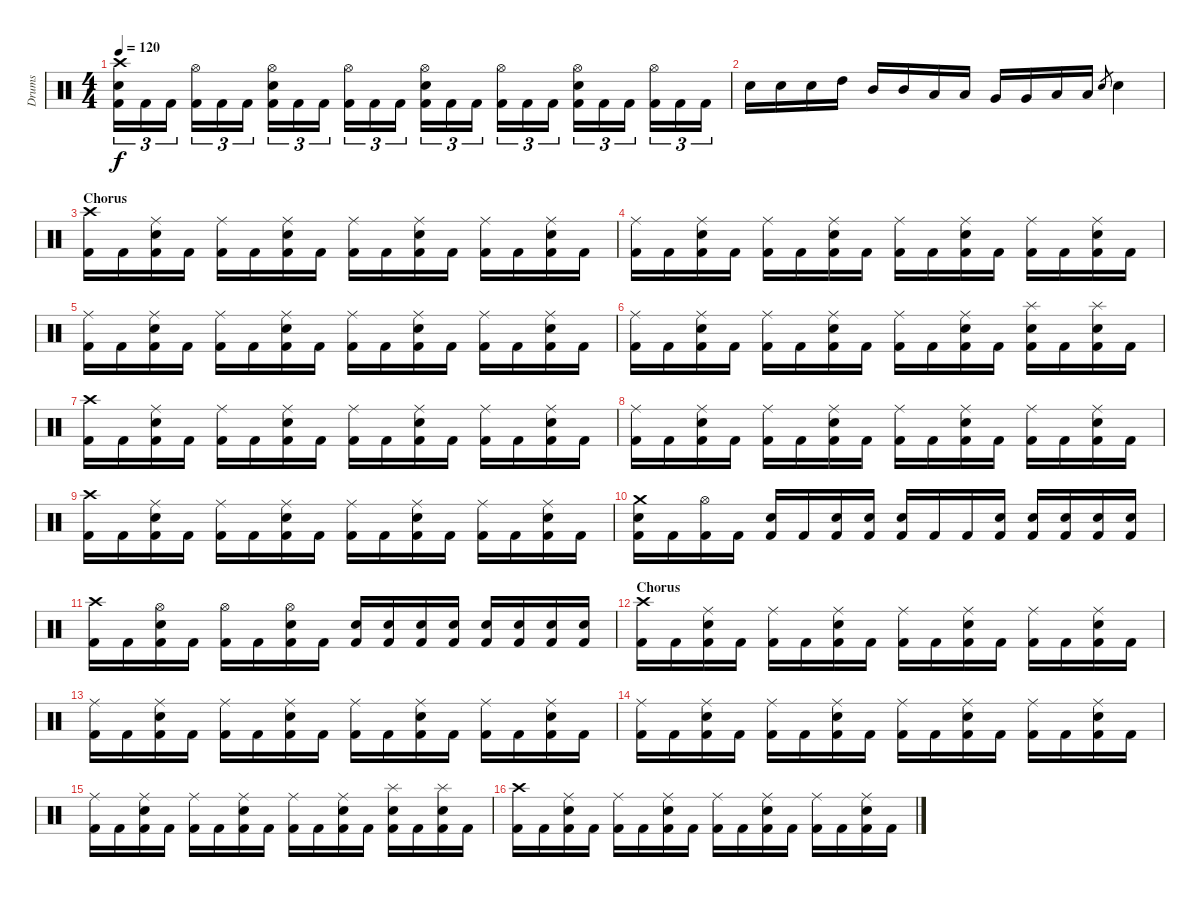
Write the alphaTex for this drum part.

\track ("Drums" "Drums") {instrument percussion}
\staff {score}
\articulation defaults
\ts (4 4)
\tempo 120
\clef neutral
\ks c
("Crash high (hit)" "Snare (hit) 2" "Kick (hit) 2").16{tu (3 2) dy f} "Kick (hit) 2".16{tu (3 2)} "Kick (hit) 2".16{tu (3 2)} ("Hi-Hat (open)" "Kick (hit) 2").16{tu (3 2)} "Kick (hit) 2".16{tu (3 2)} "Kick (hit) 2".16{tu (3 2)} ("Hi-Hat (open)" "Snare (hit) 2" "Kick (hit) 2").16{tu (3 2)} "Kick (hit) 2".16{tu (3 2)} "Kick (hit) 2".16{tu (3 2)} ("Hi-Hat (open)" "Kick (hit) 2").16{tu (3 2)} "Kick (hit) 2".16{tu (3 2)} "Kick (hit) 2".16{tu (3 2)} ("Hi-Hat (open)" "Snare (hit) 2" "Kick (hit) 2").16{tu (3 2)} "Kick (hit) 2".16{tu (3 2)} "Kick (hit) 2".16{tu (3 2)} ("Hi-Hat (open)" "Kick (hit) 2").16{tu (3 2)} "Kick (hit) 2".16{tu (3 2)} "Kick (hit) 2".16{tu (3 2)} ("Hi-Hat (open)" "Snare (hit) 2" "Kick (hit) 2").16{tu (3 2)} "Kick (hit) 2".16{tu (3 2)} "Kick (hit) 2".16{tu (3 2)} ("Hi-Hat (open)" "Kick (hit) 2").16{tu (3 2)} "Kick (hit) 2".16{tu (3 2)} "Kick (hit) 2".16{tu (3 2)} |
"Snare (hit) 2".16 "Snare (hit) 2".16 "Snare (hit) 2".16 "High Tom (hit)".16 "Mid Tom (hit)".16 "Mid Tom (hit)".16 "Low Tom (hit)".16 "Low Tom (hit)".16 "Very Low Tom (hit)".16 "Very Low Tom (hit)".16 "Low Floor Tom (hit)".16 "Low Floor Tom (hit)".16 "Snare (hit) 2".8{gr} "Snare (hit) 2".4 |
\section ("" "Chorus")
("Crash high (hit)" "Kick (hit) 2").16 "Kick (hit) 2".16 ("Ride (middle)" "Snare (hit) 2" "Kick (hit) 2").16 "Kick (hit) 2".16 ("Ride (middle)" "Kick (hit) 2").16 "Kick (hit) 2".16 ("Ride (middle)" "Snare (hit) 2" "Kick (hit) 2").16 "Kick (hit) 2".16 ("Ride (middle)" "Kick (hit) 2").16 "Kick (hit) 2".16 ("Ride (middle)" "Snare (hit) 2" "Kick (hit) 2").16 "Kick (hit) 2".16 ("Ride (middle)" "Kick (hit) 2").16 "Kick (hit) 2".16 ("Ride (middle)" "Snare (hit) 2" "Kick (hit) 2").16 "Kick (hit) 2".16 |
("Ride (middle)" "Kick (hit) 2").16 "Kick (hit) 2".16 ("Ride (middle)" "Snare (hit) 2" "Kick (hit) 2").16 "Kick (hit) 2".16 ("Ride (middle)" "Kick (hit) 2").16 "Kick (hit) 2".16 ("Ride (middle)" "Snare (hit) 2" "Kick (hit) 2").16 "Kick (hit) 2".16 ("Ride (middle)" "Kick (hit) 2").16 "Kick (hit) 2".16 ("Ride (middle)" "Snare (hit) 2" "Kick (hit) 2").16 "Kick (hit) 2".16 ("Ride (middle)" "Kick (hit) 2").16 "Kick (hit) 2".16 ("Ride (middle)" "Snare (hit) 2" "Kick (hit) 2").16 "Kick (hit) 2".16 |
("Ride (middle)" "Kick (hit) 2").16 "Kick (hit) 2".16 ("Ride (middle)" "Snare (hit) 2" "Kick (hit) 2").16 "Kick (hit) 2".16 ("Ride (middle)" "Kick (hit) 2").16 "Kick (hit) 2".16 ("Ride (middle)" "Snare (hit) 2" "Kick (hit) 2").16 "Kick (hit) 2".16 ("Ride (middle)" "Kick (hit) 2").16 "Kick (hit) 2".16 ("Ride (middle)" "Snare (hit) 2" "Kick (hit) 2").16 "Kick (hit) 2".16 ("Ride (middle)" "Kick (hit) 2").16 "Kick (hit) 2".16 ("Ride (middle)" "Snare (hit) 2" "Kick (hit) 2").16 "Kick (hit) 2".16 |
("Ride (middle)" "Kick (hit) 2").16 "Kick (hit) 2".16 ("Ride (middle)" "Snare (hit) 2" "Kick (hit) 2").16 "Kick (hit) 2".16 ("Ride (middle)" "Kick (hit) 2").16 "Kick (hit) 2".16 ("Ride (middle)" "Snare (hit) 2" "Kick (hit) 2").16 "Kick (hit) 2".16 ("Ride (middle)" "Kick (hit) 2").16 "Kick (hit) 2".16 ("Ride (middle)" "Snare (hit) 2" "Kick (hit) 2").16 "Kick (hit) 2".16 ("Splash (hit)" "Snare (hit) 2" "Kick (hit) 2").16 "Kick (hit) 2".16 ("Splash (hit)" "Snare (hit) 2" "Kick (hit) 2").16 "Kick (hit) 2".16 |
("Crash high (hit)" "Kick (hit) 2").16 "Kick (hit) 2".16 ("Ride (middle)" "Snare (hit) 2" "Kick (hit) 2").16 "Kick (hit) 2".16 ("Ride (middle)" "Kick (hit) 2").16 "Kick (hit) 2".16 ("Ride (middle)" "Snare (hit) 2" "Kick (hit) 2").16 "Kick (hit) 2".16 ("Ride (middle)" "Kick (hit) 2").16 "Kick (hit) 2".16 ("Ride (middle)" "Snare (hit) 2" "Kick (hit) 2").16 "Kick (hit) 2".16 ("Ride (middle)" "Kick (hit) 2").16 "Kick (hit) 2".16 ("Ride (middle)" "Snare (hit) 2" "Kick (hit) 2").16 "Kick (hit) 2".16 |
("Ride (middle)" "Kick (hit) 2").16 "Kick (hit) 2".16 ("Ride (middle)" "Snare (hit) 2" "Kick (hit) 2").16 "Kick (hit) 2".16 ("Ride (middle)" "Kick (hit) 2").16 "Kick (hit) 2".16 ("Ride (middle)" "Snare (hit) 2" "Kick (hit) 2").16 "Kick (hit) 2".16 ("Ride (middle)" "Kick (hit) 2").16 "Kick (hit) 2".16 ("Ride (middle)" "Snare (hit) 2" "Kick (hit) 2").16 "Kick (hit) 2".16 ("Ride (middle)" "Kick (hit) 2").16 "Kick (hit) 2".16 ("Ride (middle)" "Snare (hit) 2" "Kick (hit) 2").16 "Kick (hit) 2".16 |
("Crash high (hit)" "Kick (hit) 2").16 "Kick (hit) 2".16 ("Ride (middle)" "Snare (hit) 2" "Kick (hit) 2").16 "Kick (hit) 2".16 ("Ride (middle)" "Kick (hit) 2").16 "Kick (hit) 2".16 ("Ride (middle)" "Snare (hit) 2" "Kick (hit) 2").16 "Kick (hit) 2".16 ("Ride (middle)" "Kick (hit) 2").16 "Kick (hit) 2".16 ("Ride (middle)" "Snare (hit) 2" "Kick (hit) 2").16 "Kick (hit) 2".16 ("Ride (middle)" "Kick (hit) 2").16 "Kick (hit) 2".16 ("Ride (middle)" "Snare (hit) 2" "Kick (hit) 2").16 "Kick (hit) 2".16 |
("Crash medium (hit)" "Snare (hit) 2" "Kick (hit) 2").16 "Kick (hit) 2".16 ("Hi-Hat (open)" "Kick (hit) 2").16 "Kick (hit) 2".16 ("Snare (hit) 2" "Kick (hit) 2").16 "Kick (hit) 2".16 ("Snare (hit) 2" "Kick (hit) 2").16 ("Snare (hit) 2" "Kick (hit) 2").16 ("Snare (hit) 2" "Kick (hit) 2").16 "Kick (hit) 2".16 "Kick (hit) 2".16 ("Snare (hit) 2" "Kick (hit) 2").16 ("Snare (hit) 2" "Kick (hit) 2").16 ("Snare (hit) 2" "Kick (hit) 2").16 ("Snare (hit) 2" "Kick (hit) 2").16 ("Snare (hit) 2" "Kick (hit) 2").16 |
("Crash high (hit)" "Kick (hit) 2").16 "Kick (hit) 2".16 ("Hi-Hat (open)" "Snare (hit) 2" "Kick (hit) 2").16 "Kick (hit) 2".16 ("Hi-Hat (open)" "Kick (hit) 2").16 "Kick (hit) 2".16 ("Hi-Hat (open)" "Snare (hit) 2" "Kick (hit) 2").16 "Kick (hit) 2".16 ("Snare (hit) 2" "Kick (hit) 2").16 ("Snare (hit) 2" "Kick (hit) 2").16 ("Snare (hit) 2" "Kick (hit) 2").16 ("Snare (hit) 2" "Kick (hit) 2").16 ("Snare (hit) 2" "Kick (hit) 2").16 ("Snare (hit) 2" "Kick (hit) 2").16 ("Snare (hit) 2" "Kick (hit) 2").16 ("Snare (hit) 2" "Kick (hit) 2").16 |
\section ("" "Chorus")
("Crash high (hit)" "Kick (hit) 2").16 "Kick (hit) 2".16 ("Ride (middle)" "Snare (hit) 2" "Kick (hit) 2").16 "Kick (hit) 2".16 ("Ride (middle)" "Kick (hit) 2").16 "Kick (hit) 2".16 ("Ride (middle)" "Snare (hit) 2" "Kick (hit) 2").16 "Kick (hit) 2".16 ("Ride (middle)" "Kick (hit) 2").16 "Kick (hit) 2".16 ("Ride (middle)" "Snare (hit) 2" "Kick (hit) 2").16 "Kick (hit) 2".16 ("Ride (middle)" "Kick (hit) 2").16 "Kick (hit) 2".16 ("Ride (middle)" "Snare (hit) 2" "Kick (hit) 2").16 "Kick (hit) 2".16 |
("Ride (middle)" "Kick (hit) 2").16 "Kick (hit) 2".16 ("Ride (middle)" "Snare (hit) 2" "Kick (hit) 2").16 "Kick (hit) 2".16 ("Ride (middle)" "Kick (hit) 2").16 "Kick (hit) 2".16 ("Ride (middle)" "Snare (hit) 2" "Kick (hit) 2").16 "Kick (hit) 2".16 ("Ride (middle)" "Kick (hit) 2").16 "Kick (hit) 2".16 ("Ride (middle)" "Snare (hit) 2" "Kick (hit) 2").16 "Kick (hit) 2".16 ("Ride (middle)" "Kick (hit) 2").16 "Kick (hit) 2".16 ("Ride (middle)" "Snare (hit) 2" "Kick (hit) 2").16 "Kick (hit) 2".16 |
("Ride (middle)" "Kick (hit) 2").16 "Kick (hit) 2".16 ("Ride (middle)" "Snare (hit) 2" "Kick (hit) 2").16 "Kick (hit) 2".16 ("Ride (middle)" "Kick (hit) 2").16 "Kick (hit) 2".16 ("Ride (middle)" "Snare (hit) 2" "Kick (hit) 2").16 "Kick (hit) 2".16 ("Ride (middle)" "Kick (hit) 2").16 "Kick (hit) 2".16 ("Ride (middle)" "Snare (hit) 2" "Kick (hit) 2").16 "Kick (hit) 2".16 ("Ride (middle)" "Kick (hit) 2").16 "Kick (hit) 2".16 ("Ride (middle)" "Snare (hit) 2" "Kick (hit) 2").16 "Kick (hit) 2".16 |
("Ride (middle)" "Kick (hit) 2").16 "Kick (hit) 2".16 ("Ride (middle)" "Snare (hit) 2" "Kick (hit) 2").16 "Kick (hit) 2".16 ("Ride (middle)" "Kick (hit) 2").16 "Kick (hit) 2".16 ("Ride (middle)" "Snare (hit) 2" "Kick (hit) 2").16 "Kick (hit) 2".16 ("Ride (middle)" "Kick (hit) 2").16 "Kick (hit) 2".16 ("Ride (middle)" "Snare (hit) 2" "Kick (hit) 2").16 "Kick (hit) 2".16 ("Splash (hit)" "Snare (hit) 2" "Kick (hit) 2").16 "Kick (hit) 2".16 ("Splash (hit)" "Snare (hit) 2" "Kick (hit) 2").16 "Kick (hit) 2".16 |
("Crash high (hit)" "Kick (hit) 2").16 "Kick (hit) 2".16 ("Ride (middle)" "Snare (hit) 2" "Kick (hit) 2").16 "Kick (hit) 2".16 ("Ride (middle)" "Kick (hit) 2").16 "Kick (hit) 2".16 ("Ride (middle)" "Snare (hit) 2" "Kick (hit) 2").16 "Kick (hit) 2".16 ("Ride (middle)" "Kick (hit) 2").16 "Kick (hit) 2".16 ("Ride (middle)" "Snare (hit) 2" "Kick (hit) 2").16 "Kick (hit) 2".16 ("Ride (middle)" "Kick (hit) 2").16 "Kick (hit) 2".16 ("Ride (middle)" "Snare (hit) 2" "Kick (hit) 2").16 "Kick (hit) 2".16
